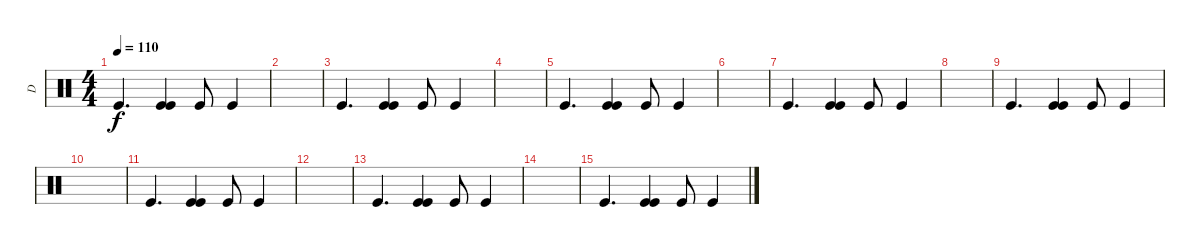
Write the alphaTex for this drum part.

\track ("D" "D") {instrument percussion}
\staff {score}
\articulation defaults
\ts (4 4)
\tempo 110
\clef neutral
\ks c "Kick (hit)".4{d dy f}
("Kick (hit)" "Kick (hit)").4 "Kick (hit)".8 "Kick (hit)".4 |
|
"Kick (hit)".4{d} ("Kick (hit)" "Kick (hit)").4 "Kick (hit)".8 "Kick (hit)".4 |
|
"Kick (hit)".4{d} ("Kick (hit)" "Kick (hit)").4 "Kick (hit)".8 "Kick (hit)".4 |
|
"Kick (hit)".4{d} ("Kick (hit)" "Kick (hit)").4 "Kick (hit)".8 "Kick (hit)".4 |
|
"Kick (hit)".4{d} ("Kick (hit)" "Kick (hit)").4 "Kick (hit)".8 "Kick (hit)".4 |
|
"Kick (hit)".4{d} ("Kick (hit)" "Kick (hit)").4 "Kick (hit)".8 "Kick (hit)".4 |
|
"Kick (hit)".4{d} ("Kick (hit)" "Kick (hit)").4 "Kick (hit)".8 "Kick (hit)".4 |
|
"Kick (hit)".4{d} ("Kick (hit)" "Kick (hit)").4 "Kick (hit)".8 "Kick (hit)".4
